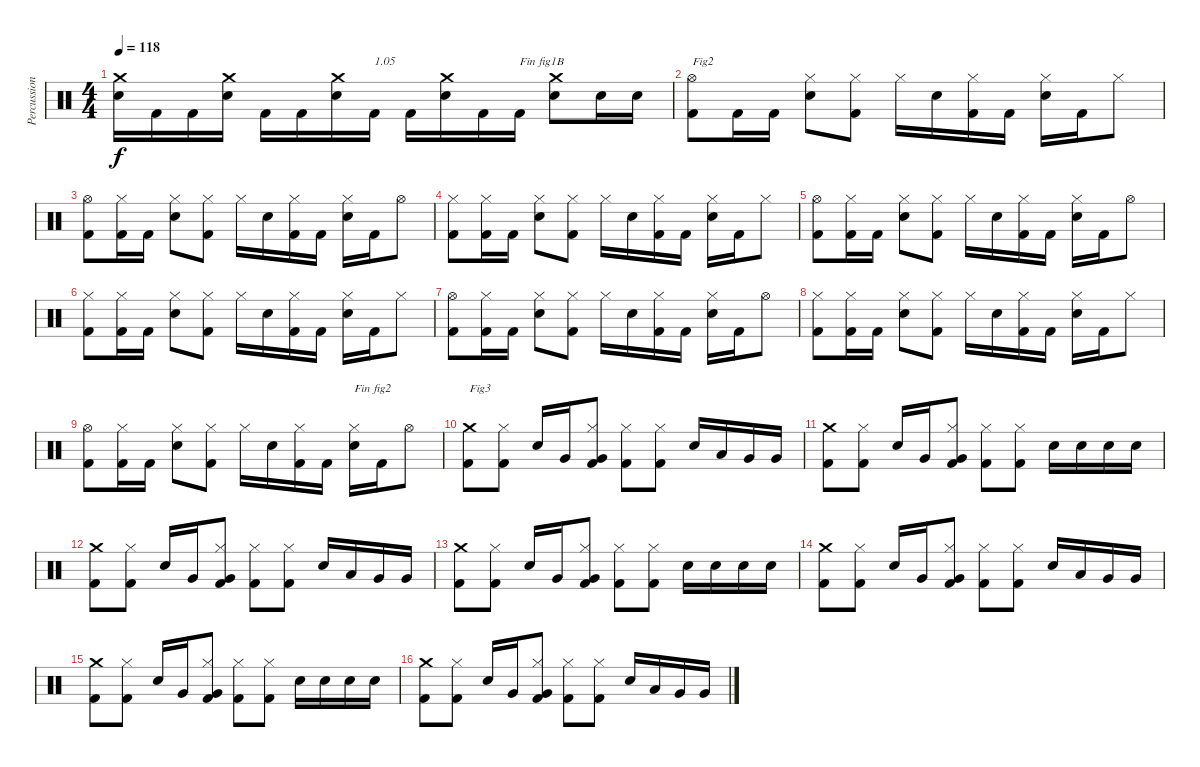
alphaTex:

\track ("Percussions" "Percussion") {instrument percussion}
\staff {score}
\articulation defaults
\ts (4 4)
\tempo 118
\clef neutral
\ks c
("Electric Snare (hit)" "Crash medium (hit)").16{dy f} "Kick (hit) 2".16 "Kick (hit) 2".16 ("Electric Snare (hit)" "Crash medium (hit)").16 "Kick (hit) 2".16 "Kick (hit) 2".16 ("Electric Snare (hit)" "Crash medium (hit)").16 "Kick (hit) 2".16{txt "1.05"} "Kick (hit) 2".16 ("Electric Snare (hit)" "Crash medium (hit)").16 "Kick (hit) 2".16 "Kick (hit) 2".16{txt "Fin fig1B"} ("Electric Snare (hit)" "Crash medium (hit)").8 "Electric Snare (hit)".16 "Electric Snare (hit)".16 |
("Kick (hit) 2" "Hi-Hat (open)").8{txt "Fig2"} "Kick (hit) 2".16 "Kick (hit) 2".16 ("Electric Snare (hit)" "Hi-Hat (closed)").8 ("Kick (hit) 2" "Hi-Hat (closed)").8 "Hi-Hat (closed)".16 "Electric Snare (hit)".16 ("Kick (hit) 2" "Hi-Hat (closed)").16 "Kick (hit) 2".16 ("Electric Snare (hit)" "Hi-Hat (closed)").16 "Kick (hit) 2".16 "Hi-Hat (closed)".8 |
("Kick (hit) 2" "Hi-Hat (open)").8 ("Kick (hit) 2" "Hi-Hat (closed)").16 "Kick (hit) 2".16 ("Electric Snare (hit)" "Hi-Hat (closed)").8 ("Kick (hit) 2" "Hi-Hat (closed)").8 "Hi-Hat (closed)".16 "Electric Snare (hit)".16 ("Kick (hit) 2" "Hi-Hat (closed)").16 "Kick (hit) 2".16 ("Electric Snare (hit)" "Hi-Hat (closed)").16 "Kick (hit) 2".16 "Hi-Hat (open)".8 |
("Kick (hit) 2" "Hi-Hat (closed)").8 ("Kick (hit) 2" "Hi-Hat (closed)").16 "Kick (hit) 2".16 ("Electric Snare (hit)" "Hi-Hat (closed)").8 ("Kick (hit) 2" "Hi-Hat (closed)").8 "Hi-Hat (closed)".16 "Electric Snare (hit)".16 ("Kick (hit) 2" "Hi-Hat (closed)").16 "Kick (hit) 2".16 ("Electric Snare (hit)" "Hi-Hat (closed)").16 "Kick (hit) 2".16 "Hi-Hat (closed)".8 |
("Kick (hit) 2" "Hi-Hat (open)").8 ("Kick (hit) 2" "Hi-Hat (closed)").16 "Kick (hit) 2".16 ("Electric Snare (hit)" "Hi-Hat (closed)").8 ("Kick (hit) 2" "Hi-Hat (closed)").8 "Hi-Hat (closed)".16 "Electric Snare (hit)".16 ("Kick (hit) 2" "Hi-Hat (closed)").16 "Kick (hit) 2".16 ("Electric Snare (hit)" "Hi-Hat (closed)").16 "Kick (hit) 2".16 "Hi-Hat (open)".8 |
("Kick (hit) 2" "Hi-Hat (closed)").8 ("Kick (hit) 2" "Hi-Hat (closed)").16 "Kick (hit) 2".16 ("Electric Snare (hit)" "Hi-Hat (closed)").8 ("Kick (hit) 2" "Hi-Hat (closed)").8 "Hi-Hat (closed)".16 "Electric Snare (hit)".16 ("Kick (hit) 2" "Hi-Hat (closed)").16 "Kick (hit) 2".16 ("Electric Snare (hit)" "Hi-Hat (closed)").16 "Kick (hit) 2".16 "Hi-Hat (closed)".8 |
("Kick (hit) 2" "Hi-Hat (open)").8 ("Kick (hit) 2" "Hi-Hat (closed)").16 "Kick (hit) 2".16 ("Electric Snare (hit)" "Hi-Hat (closed)").8 ("Kick (hit) 2" "Hi-Hat (closed)").8 "Hi-Hat (closed)".16 "Electric Snare (hit)".16 ("Kick (hit) 2" "Hi-Hat (closed)").16 "Kick (hit) 2".16 ("Electric Snare (hit)" "Hi-Hat (closed)").16 "Kick (hit) 2".16 "Hi-Hat (open)".8 |
("Kick (hit) 2" "Hi-Hat (closed)").8 ("Kick (hit) 2" "Hi-Hat (closed)").16 "Kick (hit) 2".16 ("Electric Snare (hit)" "Hi-Hat (closed)").8 ("Kick (hit) 2" "Hi-Hat (closed)").8 "Hi-Hat (closed)".16 "Electric Snare (hit)".16 ("Kick (hit) 2" "Hi-Hat (closed)").16 "Kick (hit) 2".16 ("Electric Snare (hit)" "Hi-Hat (closed)").16 "Kick (hit) 2".16 "Hi-Hat (closed)".8 |
("Kick (hit) 2" "Hi-Hat (open)").8 ("Kick (hit) 2" "Hi-Hat (closed)").16 "Kick (hit) 2".16 ("Electric Snare (hit)" "Hi-Hat (closed)").8 ("Kick (hit) 2" "Hi-Hat (closed)").8 "Hi-Hat (closed)".16 "Electric Snare (hit)".16 ("Kick (hit) 2" "Hi-Hat (closed)").16 "Kick (hit) 2".16 ("Electric Snare (hit)" "Hi-Hat (closed)").16{txt "Fin fig2"} "Kick (hit) 2".16 "Hi-Hat (open)".8 |
("Kick (hit) 2" "Crash medium (hit)").8{txt "Fig3"} ("Kick (hit) 2" "Hi-Hat (closed)").8 "Electric Snare (hit)".16 "Very Low Tom (hit)".16 ("Kick (hit) 2" "Very Low Tom (hit)" "Hi-Hat (closed)").8 ("Kick (hit) 2" "Hi-Hat (closed)").8 ("Kick (hit) 2" "Hi-Hat (closed)").8 "Electric Snare (hit)".16 "Low Tom (hit)".16 "Very Low Tom (hit)".16 "Very Low Tom (hit)".16 |
("Kick (hit) 2" "Crash medium (hit)").8 ("Kick (hit) 2" "Hi-Hat (closed)").8 "Electric Snare (hit)".16 "Very Low Tom (hit)".16 ("Kick (hit) 2" "Very Low Tom (hit)" "Hi-Hat (closed)").8 ("Kick (hit) 2" "Hi-Hat (closed)").8 ("Kick (hit) 2" "Hi-Hat (closed)").8 "Electric Snare (hit)".16 "Electric Snare (hit)".16 "Electric Snare (hit)".16 "Electric Snare (hit)".16 |
("Kick (hit) 2" "Crash medium (hit)").8 ("Kick (hit) 2" "Hi-Hat (closed)").8 "Electric Snare (hit)".16 "Very Low Tom (hit)".16 ("Kick (hit) 2" "Very Low Tom (hit)" "Hi-Hat (closed)").8 ("Kick (hit) 2" "Hi-Hat (closed)").8 ("Kick (hit) 2" "Hi-Hat (closed)").8 "Electric Snare (hit)".16 "Low Tom (hit)".16 "Very Low Tom (hit)".16 "Very Low Tom (hit)".16 |
("Kick (hit) 2" "Crash medium (hit)").8 ("Kick (hit) 2" "Hi-Hat (closed)").8 "Electric Snare (hit)".16 "Very Low Tom (hit)".16 ("Kick (hit) 2" "Very Low Tom (hit)" "Hi-Hat (closed)").8 ("Kick (hit) 2" "Hi-Hat (closed)").8 ("Kick (hit) 2" "Hi-Hat (closed)").8 "Electric Snare (hit)".16 "Electric Snare (hit)".16 "Electric Snare (hit)".16 "Electric Snare (hit)".16 |
("Kick (hit) 2" "Crash medium (hit)").8 ("Kick (hit) 2" "Hi-Hat (closed)").8 "Electric Snare (hit)".16 "Very Low Tom (hit)".16 ("Kick (hit) 2" "Very Low Tom (hit)" "Hi-Hat (closed)").8 ("Kick (hit) 2" "Hi-Hat (closed)").8 ("Kick (hit) 2" "Hi-Hat (closed)").8 "Electric Snare (hit)".16 "Low Tom (hit)".16 "Very Low Tom (hit)".16 "Very Low Tom (hit)".16 |
("Kick (hit) 2" "Crash medium (hit)").8 ("Kick (hit) 2" "Hi-Hat (closed)").8 "Electric Snare (hit)".16 "Very Low Tom (hit)".16 ("Kick (hit) 2" "Very Low Tom (hit)" "Hi-Hat (closed)").8 ("Kick (hit) 2" "Hi-Hat (closed)").8 ("Kick (hit) 2" "Hi-Hat (closed)").8 "Electric Snare (hit)".16 "Electric Snare (hit)".16 "Electric Snare (hit)".16 "Electric Snare (hit)".16 |
("Kick (hit) 2" "Crash medium (hit)").8 ("Kick (hit) 2" "Hi-Hat (closed)").8 "Electric Snare (hit)".16 "Very Low Tom (hit)".16 ("Kick (hit) 2" "Very Low Tom (hit)" "Hi-Hat (closed)").8 ("Kick (hit) 2" "Hi-Hat (closed)").8 ("Kick (hit) 2" "Hi-Hat (closed)").8 "Electric Snare (hit)".16 "Low Tom (hit)".16 "Very Low Tom (hit)".16 "Very Low Tom (hit)".16
